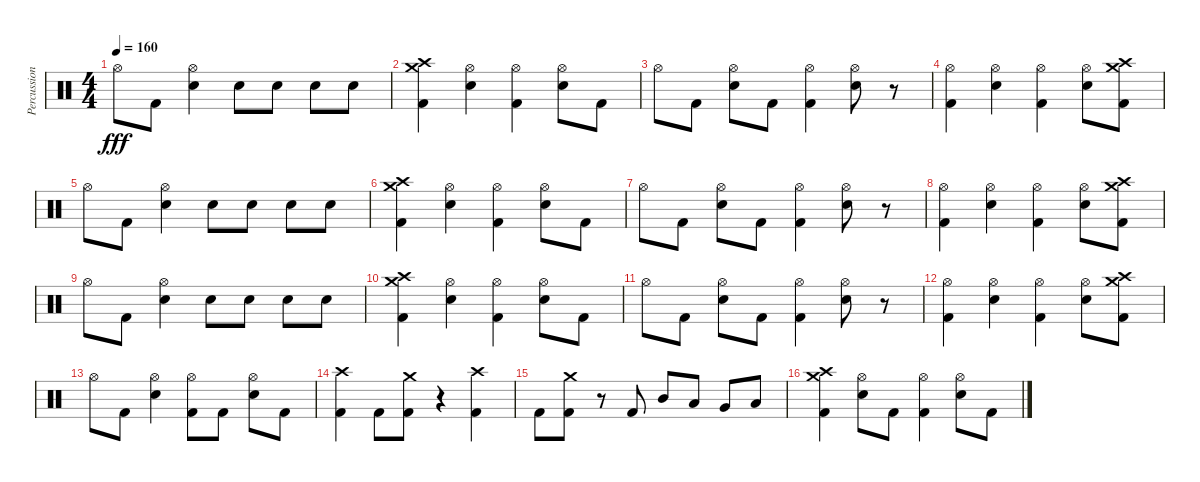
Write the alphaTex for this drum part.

\track ("Percussion" "Percussion") {instrument percussion}
\staff {score}
\articulation defaults
\ts (4 4)
\tempo 160
\clef neutral
\ks c "Hi-Hat (open)".8{dy fff} "Kick (hit) 2".8
("Hi-Hat (open)" "Snare (hit) 2").4 "Snare (hit) 2".8 "Snare (hit) 2".8 "Snare (hit) 2".8 "Snare (hit) 2".8 |
("Crash medium (hit)" "Crash high (hit)" "Kick (hit) 2").4 ("Hi-Hat (open)" "Snare (hit) 2").4 ("Hi-Hat (open)" "Kick (hit) 2").4 ("Hi-Hat (open)" "Snare (hit) 2").8 "Kick (hit) 2".8 |
"Hi-Hat (open)".8 "Kick (hit) 2".8 ("Hi-Hat (open)" "Snare (hit) 2").8 "Kick (hit) 2".8 ("Hi-Hat (open)" "Kick (hit) 2").4 ("Hi-Hat (open)" "Snare (hit) 2").8 r.8 |
("Hi-Hat (open)" "Kick (hit) 2").4 ("Hi-Hat (open)" "Snare (hit) 2").4 ("Hi-Hat (open)" "Kick (hit) 2").4 ("Hi-Hat (open)" "Snare (hit) 2").8 ("Crash medium (hit)" "Crash high (hit)" "Kick (hit) 2").8 |
"Hi-Hat (open)".8 "Kick (hit) 2".8 ("Hi-Hat (open)" "Snare (hit) 2").4 "Snare (hit) 2".8 "Snare (hit) 2".8 "Snare (hit) 2".8 "Snare (hit) 2".8 |
("Crash medium (hit)" "Crash high (hit)" "Kick (hit) 2").4 ("Hi-Hat (open)" "Snare (hit) 2").4 ("Hi-Hat (open)" "Kick (hit) 2").4 ("Hi-Hat (open)" "Snare (hit) 2").8 "Kick (hit) 2".8 |
"Hi-Hat (open)".8 "Kick (hit) 2".8 ("Hi-Hat (open)" "Snare (hit) 2").8 "Kick (hit) 2".8 ("Hi-Hat (open)" "Kick (hit) 2").4 ("Hi-Hat (open)" "Snare (hit) 2").8 r.8 |
("Hi-Hat (open)" "Kick (hit) 2").4 ("Hi-Hat (open)" "Snare (hit) 2").4 ("Hi-Hat (open)" "Kick (hit) 2").4 ("Hi-Hat (open)" "Snare (hit) 2").8 ("Crash medium (hit)" "Crash high (hit)" "Kick (hit) 2").8 |
"Hi-Hat (open)".8 "Kick (hit) 2".8 ("Hi-Hat (open)" "Snare (hit) 2").4 "Snare (hit) 2".8 "Snare (hit) 2".8 "Snare (hit) 2".8 "Snare (hit) 2".8 |
("Crash medium (hit)" "Crash high (hit)" "Kick (hit) 2").4 ("Hi-Hat (open)" "Snare (hit) 2").4 ("Hi-Hat (open)" "Kick (hit) 2").4 ("Hi-Hat (open)" "Snare (hit) 2").8 "Kick (hit) 2".8 |
"Hi-Hat (open)".8 "Kick (hit) 2".8 ("Hi-Hat (open)" "Snare (hit) 2").8 "Kick (hit) 2".8 ("Hi-Hat (open)" "Kick (hit) 2").4 ("Hi-Hat (open)" "Snare (hit) 2").8 r.8 |
("Hi-Hat (open)" "Kick (hit) 2").4 ("Hi-Hat (open)" "Snare (hit) 2").4 ("Hi-Hat (open)" "Kick (hit) 2").4 ("Hi-Hat (open)" "Snare (hit) 2").8 ("Crash medium (hit)" "Crash high (hit)" "Kick (hit) 2").8 |
"Hi-Hat (open)".8 "Kick (hit) 2".8 ("Hi-Hat (open)" "Snare (hit) 2").4 ("Hi-Hat (open)" "Kick (hit) 2").8 "Kick (hit) 2".8 ("Hi-Hat (open)" "Snare (hit) 2").8 "Kick (hit) 2".8 |
("Crash high (hit)" "Kick (hit) 2").4 "Kick (hit) 2".8 ("Crash medium (hit)" "Kick (hit) 2").8 r.4 ("Crash high (hit)" "Kick (hit) 2").4 |
"Kick (hit) 2".8 ("Crash medium (hit)" "Kick (hit) 2").8 r.8 "Kick (hit) 2".8 "Mid Tom (hit)".8 "Low Tom (hit)".8 "Very Low Tom (hit)".8 "Low Floor Tom (hit)".8 |
("Crash medium (hit)" "Crash high (hit)" "Kick (hit) 2").4 ("Hi-Hat (open)" "Snare (hit) 2").8 "Kick (hit) 2".8 ("Hi-Hat (open)" "Kick (hit) 2").4 ("Hi-Hat (open)" "Snare (hit) 2").8 "Kick (hit) 2".8
